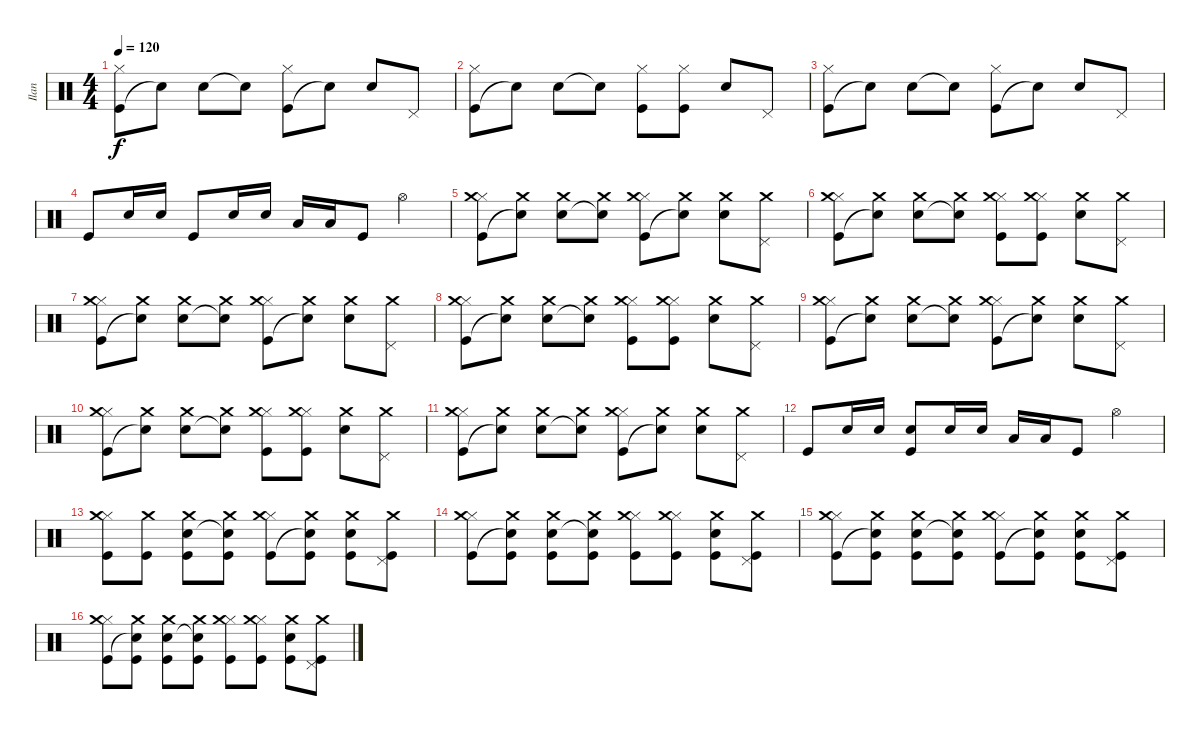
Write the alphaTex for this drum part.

\track ("Ilan" "Ilan") {instrument percussion}
\staff {score}
\articulation defaults
\ts (4 4)
\tempo 120
\clef neutral
\ks c
("Kick (hit)" "Hi-Hat (closed)").8{dy f} "Snare (hit)"{t}.8 "Electric Snare (hit)".8 "Snare (hit)"{t}.8 ("Kick (hit)" "Hi-Hat (closed)").8 "Snare (hit)"{t}.8 "Electric Snare (hit)".8 "Pedal Hi-Hat (hit)".8 |
("Kick (hit)" "Hi-Hat (closed)").8 "Snare (hit)"{t}.8 "Electric Snare (hit)".8 "Snare (hit)"{t}.8 ("Kick (hit)" "Hi-Hat (closed)").8 ("Kick (hit)" "Hi-Hat (closed)").8 "Electric Snare (hit)".8 "Pedal Hi-Hat (hit)".8 |
("Kick (hit)" "Hi-Hat (closed)").8 "Snare (hit)"{t}.8 "Electric Snare (hit)".8 "Snare (hit)"{t}.8 ("Kick (hit)" "Hi-Hat (closed)").8 "Snare (hit)"{t}.8 "Electric Snare (hit)".8 "Pedal Hi-Hat (hit)".8 |
"Kick (hit)".8 "Electric Snare (hit)".16 "Electric Snare (hit)".16 "Kick (hit)".8 "Electric Snare (hit)".16 "Electric Snare (hit)".16 "Low Tom (hit)".16 "Low Floor Tom (hit)".16 "Kick (hit)".8 "Hi-Hat (open)".4 |
("Kick (hit)" "Hi-Hat (closed)" "Crash medium (hit)").8 ("Snare (hit)"{t} "Crash medium (hit)").8 ("Electric Snare (hit)" "Crash medium (hit)").8 ("Snare (hit)"{t} "Crash medium (hit)").8 ("Kick (hit)" "Hi-Hat (closed)" "Crash medium (hit)").8 ("Snare (hit)"{t} "Crash medium (hit)").8 ("Electric Snare (hit)" "Crash medium (hit)").8 ("Pedal Hi-Hat (hit)" "Crash medium (hit)").8 |
("Kick (hit)" "Hi-Hat (closed)" "Crash medium (hit)").8 ("Snare (hit)"{t} "Crash medium (hit)").8 ("Electric Snare (hit)" "Crash medium (hit)").8 ("Snare (hit)"{t} "Crash medium (hit)").8 ("Kick (hit)" "Hi-Hat (closed)" "Crash medium (hit)").8 ("Kick (hit)" "Hi-Hat (closed)" "Crash medium (hit)").8 ("Electric Snare (hit)" "Crash medium (hit)").8 ("Pedal Hi-Hat (hit)" "Crash medium (hit)").8 |
("Kick (hit)" "Hi-Hat (closed)" "Crash medium (hit)").8 ("Snare (hit)"{t} "Crash medium (hit)").8 ("Electric Snare (hit)" "Crash medium (hit)").8 ("Snare (hit)"{t} "Crash medium (hit)").8 ("Kick (hit)" "Hi-Hat (closed)" "Crash medium (hit)").8 ("Snare (hit)"{t} "Crash medium (hit)").8 ("Electric Snare (hit)" "Crash medium (hit)").8 ("Pedal Hi-Hat (hit)" "Crash medium (hit)").8 |
("Kick (hit)" "Hi-Hat (closed)" "Crash medium (hit)").8 ("Snare (hit)"{t} "Crash medium (hit)").8 ("Electric Snare (hit)" "Crash medium (hit)").8 ("Snare (hit)"{t} "Crash medium (hit)").8 ("Kick (hit)" "Hi-Hat (closed)" "Crash medium (hit)").8 ("Kick (hit)" "Hi-Hat (closed)" "Crash medium (hit)").8 ("Electric Snare (hit)" "Crash medium (hit)").8 ("Pedal Hi-Hat (hit)" "Crash medium (hit)").8 |
("Kick (hit)" "Hi-Hat (closed)" "Crash medium (hit)").8 ("Snare (hit)"{t} "Crash medium (hit)").8 ("Electric Snare (hit)" "Crash medium (hit)").8 ("Snare (hit)"{t} "Crash medium (hit)").8 ("Kick (hit)" "Hi-Hat (closed)" "Crash medium (hit)").8 ("Snare (hit)"{t} "Crash medium (hit)").8 ("Electric Snare (hit)" "Crash medium (hit)").8 ("Pedal Hi-Hat (hit)" "Crash medium (hit)").8 |
("Kick (hit)" "Hi-Hat (closed)" "Crash medium (hit)").8 ("Snare (hit)"{t} "Crash medium (hit)").8 ("Electric Snare (hit)" "Crash medium (hit)").8 ("Snare (hit)"{t} "Crash medium (hit)").8 ("Kick (hit)" "Hi-Hat (closed)" "Crash medium (hit)").8 ("Kick (hit)" "Hi-Hat (closed)" "Crash medium (hit)").8 ("Electric Snare (hit)" "Crash medium (hit)").8 ("Pedal Hi-Hat (hit)" "Crash medium (hit)").8 |
("Kick (hit)" "Hi-Hat (closed)" "Crash medium (hit)").8 ("Snare (hit)"{t} "Crash medium (hit)").8 ("Electric Snare (hit)" "Crash medium (hit)").8 ("Snare (hit)"{t} "Crash medium (hit)").8 ("Kick (hit)" "Hi-Hat (closed)" "Crash medium (hit)").8 ("Snare (hit)"{t} "Crash medium (hit)").8 ("Electric Snare (hit)" "Crash medium (hit)").8 ("Pedal Hi-Hat (hit)" "Crash medium (hit)").8 |
"Kick (hit)".8 "Electric Snare (hit)".16 "Electric Snare (hit)".16 ("Electric Snare (hit)" "Kick (hit)").8 "Electric Snare (hit)".16 "Electric Snare (hit)".16 "Low Tom (hit)".16 "Low Floor Tom (hit)".16 "Kick (hit)".8 "Hi-Hat (open)".4 |
("Kick (hit)" "Hi-Hat (closed)" "Crash medium (hit)").8 ("Kick (hit)" "Crash medium (hit)").8 ("Electric Snare (hit)" "Kick (hit)" "Crash medium (hit)").8 ("Snare (hit)"{t} "Kick (hit)" "Crash medium (hit)").8 ("Kick (hit)" "Hi-Hat (closed)" "Crash medium (hit)").8 ("Snare (hit)"{t} "Kick (hit)" "Crash medium (hit)").8 ("Electric Snare (hit)" "Kick (hit)" "Crash medium (hit)").8 ("Pedal Hi-Hat (hit)" "Kick (hit)" "Crash medium (hit)").8 |
("Kick (hit)" "Hi-Hat (closed)" "Crash medium (hit)").8 ("Snare (hit)"{t} "Kick (hit)" "Crash medium (hit)").8 ("Electric Snare (hit)" "Kick (hit)" "Crash medium (hit)").8 ("Snare (hit)"{t} "Kick (hit)" "Crash medium (hit)").8 ("Kick (hit)" "Hi-Hat (closed)" "Crash medium (hit)").8 ("Kick (hit)" "Hi-Hat (closed)" "Crash medium (hit)").8 ("Electric Snare (hit)" "Kick (hit)" "Crash medium (hit)").8 ("Pedal Hi-Hat (hit)" "Kick (hit)" "Crash medium (hit)").8 |
("Kick (hit)" "Hi-Hat (closed)" "Crash medium (hit)").8 ("Snare (hit)"{t} "Kick (hit)" "Crash medium (hit)").8 ("Electric Snare (hit)" "Kick (hit)" "Crash medium (hit)").8 ("Snare (hit)"{t} "Kick (hit)" "Crash medium (hit)").8 ("Kick (hit)" "Hi-Hat (closed)" "Crash medium (hit)").8 ("Snare (hit)"{t} "Kick (hit)" "Crash medium (hit)").8 ("Electric Snare (hit)" "Kick (hit)" "Crash medium (hit)").8 ("Pedal Hi-Hat (hit)" "Kick (hit)" "Crash medium (hit)").8 |
("Kick (hit)" "Hi-Hat (closed)" "Crash medium (hit)").8 ("Snare (hit)"{t} "Kick (hit)" "Crash medium (hit)").8 ("Electric Snare (hit)" "Kick (hit)" "Crash medium (hit)").8 ("Snare (hit)"{t} "Kick (hit)" "Crash medium (hit)").8 ("Kick (hit)" "Hi-Hat (closed)" "Crash medium (hit)").8 ("Kick (hit)" "Hi-Hat (closed)" "Crash medium (hit)").8 ("Electric Snare (hit)" "Kick (hit)" "Crash medium (hit)").8 ("Pedal Hi-Hat (hit)" "Kick (hit)" "Crash medium (hit)").8
